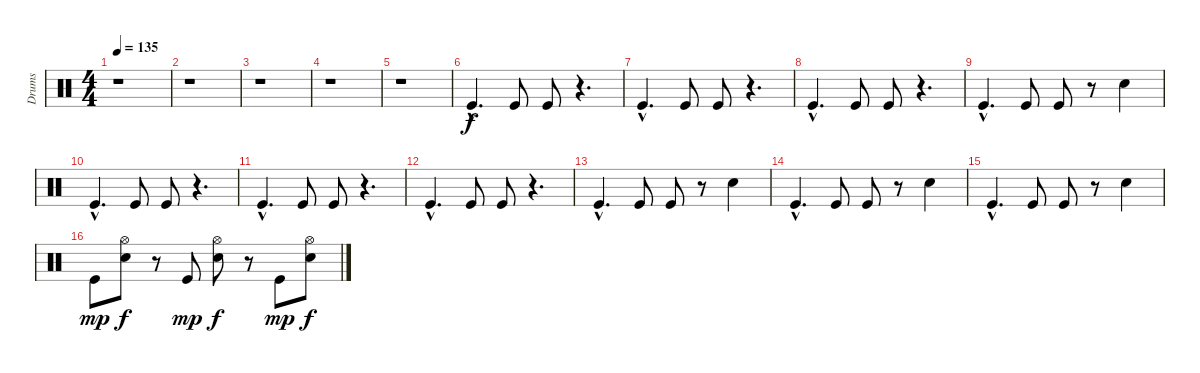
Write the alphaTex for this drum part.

\track ("Drums" "Drums") {instrument percussion}
\staff {score}
\articulation defaults
\ts (4 4)
\tempo 135
\clef neutral
\ks c
r.1{dy f} |
r.1 |
r.1 |
r.1 |
r.1 |
"Kick (hit)"{hac}.4{d} "Kick (hit)".8 "Kick (hit)".8 r.4{d} |
"Kick (hit)"{hac}.4{d} "Kick (hit)".8 "Kick (hit)".8 r.4{d} |
"Kick (hit)"{hac}.4{d} "Kick (hit)".8 "Kick (hit)".8 r.4{d} |
"Kick (hit)"{hac}.4{d} "Kick (hit)".8 "Kick (hit)".8 r.8 "Snare (hit) 2".4 |
"Kick (hit)"{hac}.4{d} "Kick (hit)".8 "Kick (hit)".8 r.4{d} |
"Kick (hit)"{hac}.4{d} "Kick (hit)".8 "Kick (hit)".8 r.4{d} |
"Kick (hit)"{hac}.4{d} "Kick (hit)".8 "Kick (hit)".8 r.4{d} |
"Kick (hit)"{hac}.4{d} "Kick (hit)".8 "Kick (hit)".8 r.8 "Snare (hit) 2".4 |
"Kick (hit)"{hac}.4{d} "Kick (hit)".8 "Kick (hit)".8 r.8 "Snare (hit) 2".4 |
"Kick (hit)"{hac}.4{d} "Kick (hit)".8 "Kick (hit)".8 r.8 "Snare (hit) 2".4 |
"Kick (hit)".8{dy mp} ("Hi-Hat (open)" "Snare (hit) 2").8{dy f} r.8 "Kick (hit)".8{dy mp} ("Hi-Hat (open)" "Snare (hit) 2").8{dy f} r.8 "Kick (hit)".8{dy mp} ("Hi-Hat (open)" "Snare (hit) 2").8{dy f}
